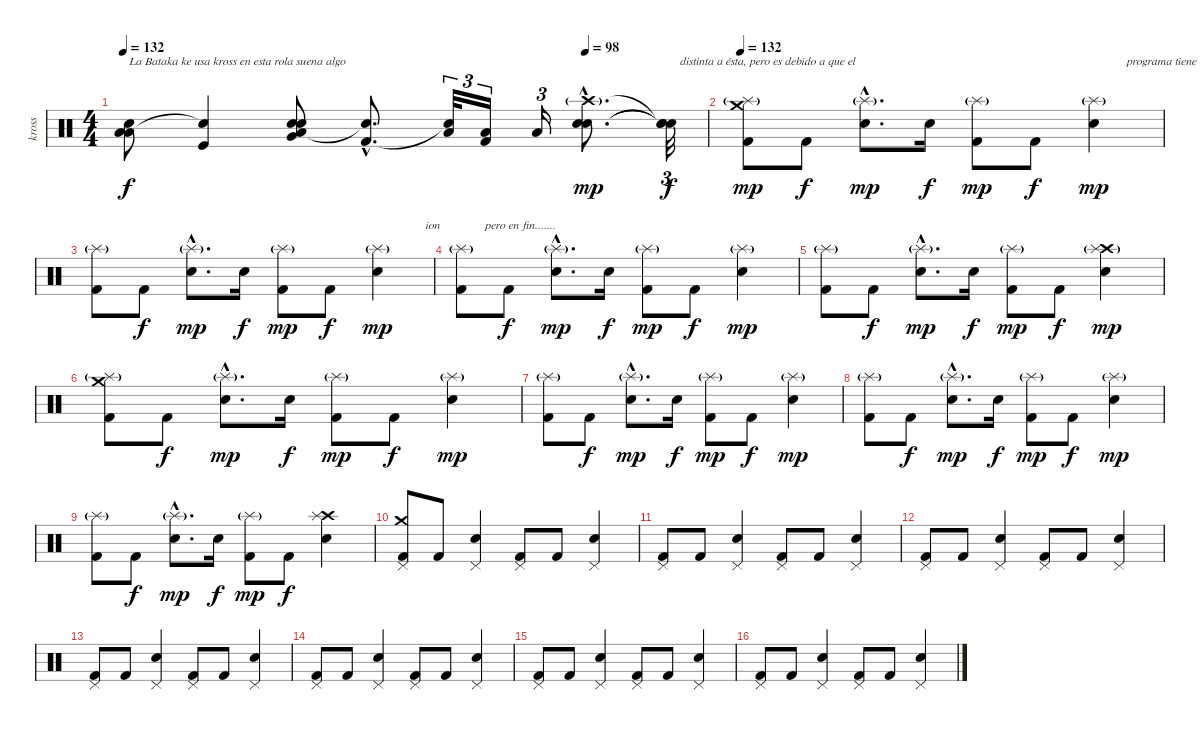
\track ("kross" "kross") {instrument percussion}
\staff {score}
\articulation defaults
\ts (4 4)
\tempo 132
\tempo (98 0.7916666666666666)
\tempo 132
\clef neutral
\ks c
("Low Floor Tom (hit)" "Electric Snare (hit)" "Low Floor Tom (hit)").8{txt "La Bataka ke usa kross en esta rola suena algo " dy f} ("Snare (hit)"{t} "Kick (hit)").4 ("Low Floor Tom (hit)" "Electric Snare (hit)" "Very Low Tom (hit)" "Snare (hit)").8 ("Snare (hit)"{hac t} "Kick (hit) 2"{hac}).8{d} ("Low Tom (hit)" "Snare (hit)"{t}).32{tu (3 2)} ("Low Floor Tom (hit)" "Kick (hit) 2").16{tu (3 2)} "Low Floor Tom (hit)".16{tu (3 2)} ("Crash high (hit)"{g hac} "Electric Snare (hit)"{hac} "Electric Snare (hit)"{hac}).8{d dy mp} ("Snare (hit)"{t} "Snare (hit)"{t} "Snare (hit)"{t}).32{tu (3 2) txt "   distinta a ésta, pero es debido a que el " dy f} |
\tempo 132
("Crash medium (hit)" "Splash (hit)"{g} "Kick (hit) 2").8{dy mp} "Kick (hit) 2".8{dy f} ("Splash (hit)"{g hac} "Electric Snare (hit)"{hac}).8{d dy mp} "Electric Snare (hit)".16{dy f} ("Splash (hit)"{g} "Kick (hit) 2").8{dy mp} "Kick (hit) 2".8{dy f} ("Splash (hit)"{g} "Electric Snare (hit)").4{txt "           programa tiene muy pocos kits de percus" dy mp} |
("Splash (hit)"{g} "Kick (hit) 2").8 "Kick (hit) 2".8{dy f} ("Splash (hit)"{g hac} "Electric Snare (hit)"{hac}).8{d dy mp} "Electric Snare (hit)".16{dy f} ("Splash (hit)"{g} "Kick (hit) 2").8{dy mp} "Kick (hit) 2".8{dy f} ("Splash (hit)"{g} "Electric Snare (hit)").4{txt "                ion" dy mp} |
("Splash (hit)"{g} "Kick (hit) 2").8{txt "        pero en fin......."} "Kick (hit) 2".8{dy f} ("Splash (hit)"{g hac} "Electric Snare (hit)"{hac}).8{d dy mp} "Electric Snare (hit)".16{dy f} ("Splash (hit)"{g} "Kick (hit) 2").8{dy mp} "Kick (hit) 2".8{dy f} ("Splash (hit)"{g} "Electric Snare (hit)").4{dy mp} |
("Splash (hit)"{g} "Kick (hit) 2").8 "Kick (hit) 2".8{dy f} ("Splash (hit)"{g hac} "Electric Snare (hit)"{hac}).8{d dy mp} "Electric Snare (hit)".16{dy f} ("Splash (hit)"{g} "Kick (hit) 2").8{dy mp} "Kick (hit) 2".8{dy f} ("Crash high (hit)" "Splash (hit)"{g} "Electric Snare (hit)").4{dy mp} |
("Crash medium (hit)" "Splash (hit)"{g} "Kick (hit) 2").8 "Kick (hit) 2".8{dy f} ("Splash (hit)"{g hac} "Electric Snare (hit)"{hac}).8{d dy mp} "Electric Snare (hit)".16{dy f} ("Splash (hit)"{g} "Kick (hit) 2").8{dy mp} "Kick (hit) 2".8{dy f} ("Splash (hit)"{g} "Electric Snare (hit)").4{dy mp} |
("Splash (hit)"{g} "Kick (hit) 2").8 "Kick (hit) 2".8{dy f} ("Splash (hit)"{g hac} "Electric Snare (hit)"{hac}).8{d dy mp} "Electric Snare (hit)".16{dy f} ("Splash (hit)"{g} "Kick (hit) 2").8{dy mp} "Kick (hit) 2".8{dy f} ("Splash (hit)"{g} "Electric Snare (hit)").4{dy mp} |
("Splash (hit)"{g} "Kick (hit) 2").8 "Kick (hit) 2".8{dy f} ("Splash (hit)"{g hac} "Electric Snare (hit)"{hac}).8{d dy mp} "Electric Snare (hit)".16{dy f} ("Splash (hit)"{g} "Kick (hit) 2").8{dy mp} "Kick (hit) 2".8{dy f} ("Splash (hit)"{g} "Electric Snare (hit)").4{dy mp} |
("Splash (hit)"{g} "Kick (hit) 2").8 "Kick (hit) 2".8{dy f} ("Splash (hit)"{g hac} "Electric Snare (hit)"{hac}).8{d dy mp} "Electric Snare (hit)".16{dy f} ("Splash (hit)"{g} "Kick (hit) 2").8{dy mp} "Kick (hit) 2".8{dy f} ("Crash high (hit)" "Splash (hit)" "Electric Snare (hit)").4 |
("Crash medium (hit)" "Pedal Hi-Hat (hit)" "Kick (hit) 2").8 "Kick (hit) 2".8 ("Pedal Hi-Hat (hit)" "Electric Snare (hit)").4 ("Pedal Hi-Hat (hit)" "Kick (hit) 2").8 "Kick (hit) 2".8 ("Pedal Hi-Hat (hit)" "Electric Snare (hit)").4 |
("Pedal Hi-Hat (hit)" "Kick (hit) 2").8 "Kick (hit) 2".8 ("Pedal Hi-Hat (hit)" "Electric Snare (hit)").4 ("Pedal Hi-Hat (hit)" "Kick (hit) 2").8 "Kick (hit) 2".8 ("Pedal Hi-Hat (hit)" "Electric Snare (hit)").4 |
("Pedal Hi-Hat (hit)" "Kick (hit) 2").8 "Kick (hit) 2".8 ("Pedal Hi-Hat (hit)" "Electric Snare (hit)").4 ("Pedal Hi-Hat (hit)" "Kick (hit) 2").8 "Kick (hit) 2".8 ("Pedal Hi-Hat (hit)" "Electric Snare (hit)").4 |
("Pedal Hi-Hat (hit)" "Kick (hit) 2").8 "Kick (hit) 2".8 ("Pedal Hi-Hat (hit)" "Electric Snare (hit)").4 ("Pedal Hi-Hat (hit)" "Kick (hit) 2").8 "Kick (hit) 2".8 ("Pedal Hi-Hat (hit)" "Electric Snare (hit)").4 |
("Pedal Hi-Hat (hit)" "Kick (hit) 2").8 "Kick (hit) 2".8 ("Pedal Hi-Hat (hit)" "Electric Snare (hit)").4 ("Pedal Hi-Hat (hit)" "Kick (hit) 2").8 "Kick (hit) 2".8 ("Pedal Hi-Hat (hit)" "Electric Snare (hit)").4 |
("Pedal Hi-Hat (hit)" "Kick (hit) 2").8 "Kick (hit) 2".8 ("Pedal Hi-Hat (hit)" "Electric Snare (hit)").4 ("Pedal Hi-Hat (hit)" "Kick (hit) 2").8 "Kick (hit) 2".8 ("Pedal Hi-Hat (hit)" "Electric Snare (hit)").4 |
("Pedal Hi-Hat (hit)" "Kick (hit) 2").8 "Kick (hit) 2".8 ("Pedal Hi-Hat (hit)" "Electric Snare (hit)").4 ("Pedal Hi-Hat (hit)" "Kick (hit) 2").8 "Kick (hit) 2".8 ("Pedal Hi-Hat (hit)" "Electric Snare (hit)").4
